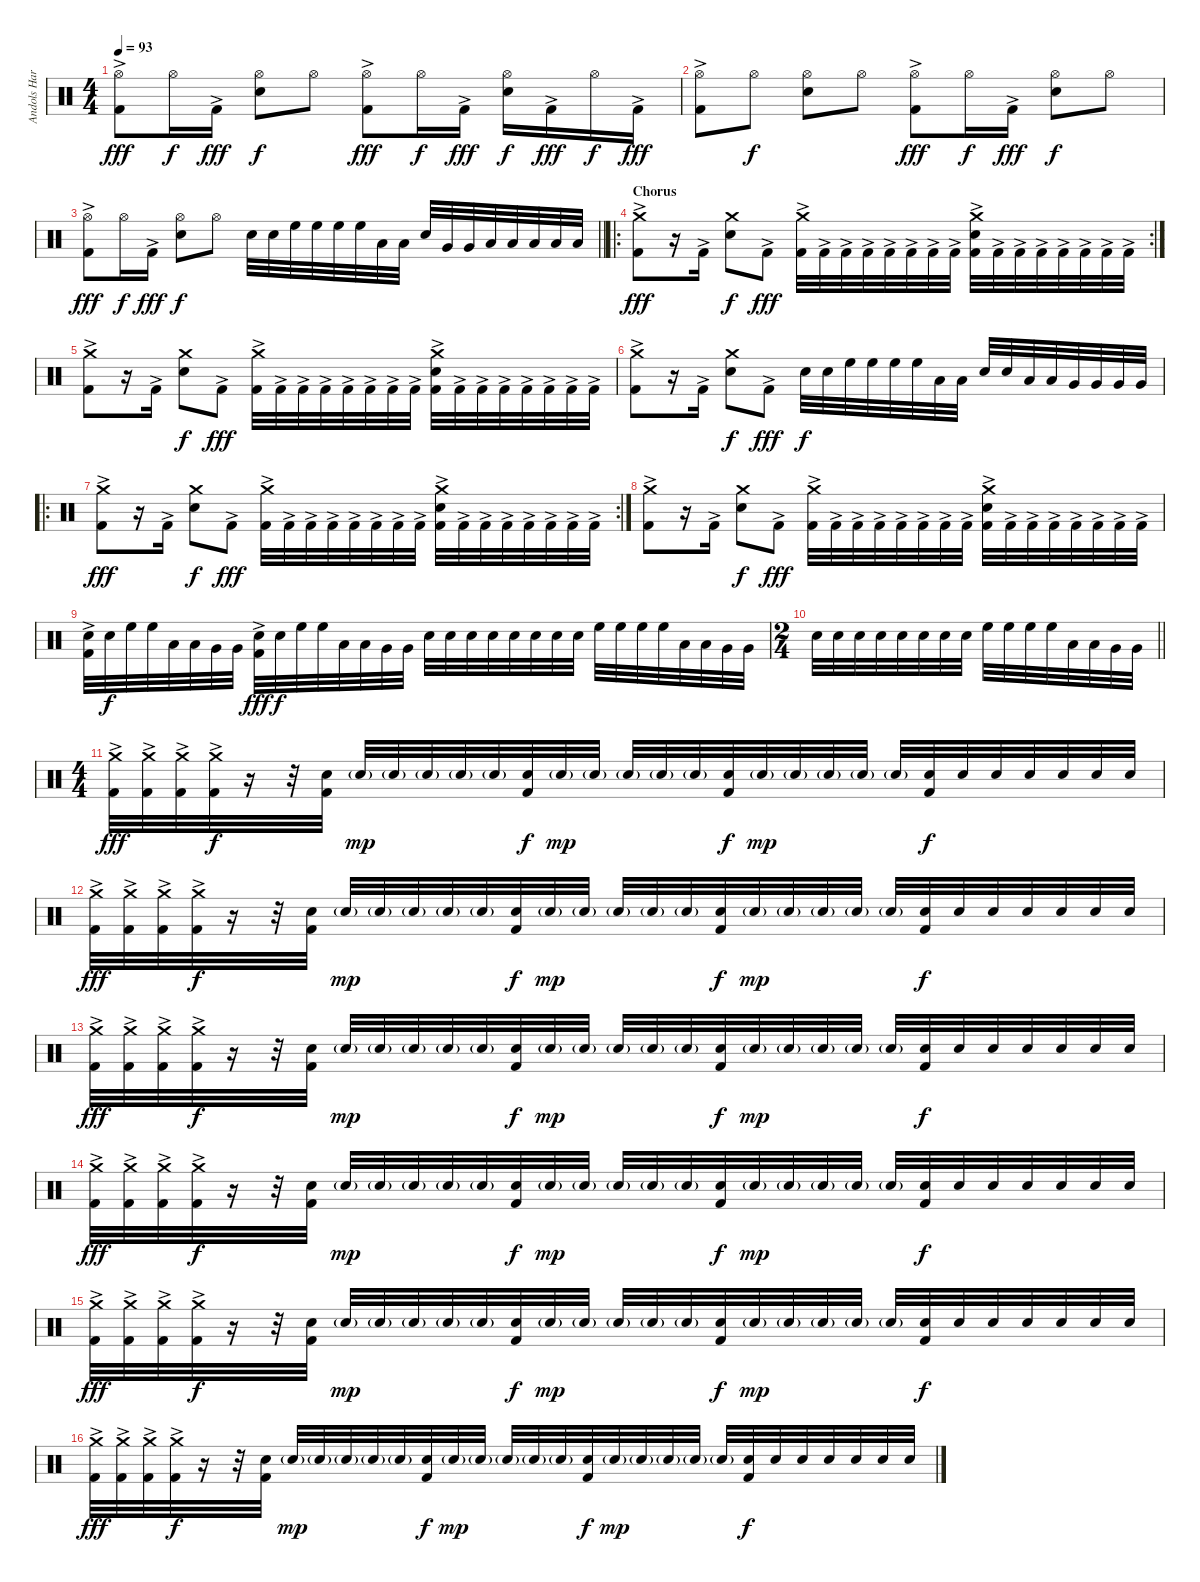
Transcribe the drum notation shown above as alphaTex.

\track ("Andols Harrick" "Andols Har") {instrument percussion}
\staff {score}
\articulation defaults
\ts (4 4)
\tempo 93
\clef neutral
\ks c
("Hi-Hat (open)" "Kick (hit) 2"{ac}).8{dy fff} "Hi-Hat (open)".16{dy f} "Kick (hit) 2"{ac}.16{dy fff} ("Hi-Hat (open)" "Electric Snare (hit)").8{dy f} "Hi-Hat (open)".8 ("Hi-Hat (open)" "Kick (hit) 2"{ac}).8{dy fff} "Hi-Hat (open)".16{dy f} "Kick (hit) 2"{ac}.16{dy fff} ("Hi-Hat (open)" "Electric Snare (hit)").16{dy f} "Kick (hit) 2"{ac}.16{dy fff} "Hi-Hat (open)".16{dy f} "Kick (hit) 2"{ac}.16{dy fff} |
("Hi-Hat (open)" "Kick (hit) 2"{ac}).8 "Hi-Hat (open)".8{dy f} ("Hi-Hat (open)" "Electric Snare (hit)").8 "Hi-Hat (open)".8 ("Hi-Hat (open)" "Kick (hit) 2"{ac}).8{dy fff} "Hi-Hat (open)".16{dy f} "Kick (hit) 2"{ac}.16{dy fff} ("Hi-Hat (open)" "Electric Snare (hit)").8{dy f} "Hi-Hat (open)".8 |
\barLineRight lightlight
("Hi-Hat (open)" "Kick (hit) 2"{ac}).8{dy fff} "Hi-Hat (open)".16{dy f} "Kick (hit) 2"{ac}.16{dy fff} ("Hi-Hat (open)" "Electric Snare (hit)").8{dy f} "Hi-Hat (open)".8 "Electric Snare (hit)".32 "Electric Snare (hit)".32 "High Floor Tom (hit)".32 "High Floor Tom (hit)".32 "High Floor Tom (hit)".32 "High Floor Tom (hit)".32 "Low Tom (hit)".32 "Low Tom (hit)".32 "Electric Snare (hit)".32 "Very Low Tom (hit)".32 "Very Low Tom (hit)".32 "Low Floor Tom (hit)".32 "Low Floor Tom (hit)".32 "Low Floor Tom (hit)".32 "Low Floor Tom (hit)".32 "Low Floor Tom (hit)".32 |
\ro
\rc 2
\section ("" "Chorus")
("Crash medium (hit)" "Kick (hit) 2"{ac}).8{dy fff} r.16 "Kick (hit) 2"{ac}.16 ("Crash medium (hit)" "Electric Snare (hit)").8{dy f} "Kick (hit) 2"{ac}.8{dy fff} ("Crash medium (hit)" "Kick (hit) 2"{ac}).32 "Kick (hit) 2"{ac}.32 "Kick (hit) 2"{ac}.32 "Kick (hit) 2"{ac}.32 "Kick (hit) 2"{ac}.32 "Kick (hit) 2"{ac}.32 "Kick (hit) 2"{ac}.32 "Kick (hit) 2"{ac}.32 ("Crash medium (hit)" "Electric Snare (hit)" "Kick (hit) 2"{ac}).32 "Kick (hit) 2"{ac}.32 "Kick (hit) 2"{ac}.32 "Kick (hit) 2"{ac}.32 "Kick (hit) 2"{ac}.32 "Kick (hit) 2"{ac}.32 "Kick (hit) 2"{ac}.32 "Kick (hit) 2"{ac}.32 |
("Crash medium (hit)" "Kick (hit) 2"{ac}).8 r.16 "Kick (hit) 2"{ac}.16 ("Crash medium (hit)" "Electric Snare (hit)").8{dy f} "Kick (hit) 2"{ac}.8{dy fff} ("Crash medium (hit)" "Kick (hit) 2"{ac}).32 "Kick (hit) 2"{ac}.32 "Kick (hit) 2"{ac}.32 "Kick (hit) 2"{ac}.32 "Kick (hit) 2"{ac}.32 "Kick (hit) 2"{ac}.32 "Kick (hit) 2"{ac}.32 "Kick (hit) 2"{ac}.32 ("Crash medium (hit)" "Electric Snare (hit)" "Kick (hit) 2"{ac}).32 "Kick (hit) 2"{ac}.32 "Kick (hit) 2"{ac}.32 "Kick (hit) 2"{ac}.32 "Kick (hit) 2"{ac}.32 "Kick (hit) 2"{ac}.32 "Kick (hit) 2"{ac}.32 "Kick (hit) 2"{ac}.32 |
("Crash medium (hit)" "Kick (hit) 2"{ac}).8 r.16 "Kick (hit) 2"{ac}.16 ("Crash medium (hit)" "Electric Snare (hit)").8{dy f} "Kick (hit) 2"{ac}.8{dy fff} "Electric Snare (hit)".32{dy f} "Electric Snare (hit)".32 "High Floor Tom (hit)".32 "High Floor Tom (hit)".32 "High Floor Tom (hit)".32 "High Floor Tom (hit)".32 "Low Tom (hit)".32 "Low Tom (hit)".32 "Electric Snare (hit)".32 "Electric Snare (hit)".32 "Low Tom (hit)".32 "Low Tom (hit)".32 "Very Low Tom (hit)".32 "Very Low Tom (hit)".32 "Very Low Tom (hit)".32 "Very Low Tom (hit)".32 |
\ro
\rc 2
("Crash medium (hit)" "Kick (hit) 2"{ac}).8{dy fff} r.16 "Kick (hit) 2"{ac}.16 ("Crash medium (hit)" "Electric Snare (hit)").8{dy f} "Kick (hit) 2"{ac}.8{dy fff} ("Crash medium (hit)" "Kick (hit) 2"{ac}).32 "Kick (hit) 2"{ac}.32 "Kick (hit) 2"{ac}.32 "Kick (hit) 2"{ac}.32 "Kick (hit) 2"{ac}.32 "Kick (hit) 2"{ac}.32 "Kick (hit) 2"{ac}.32 "Kick (hit) 2"{ac}.32 ("Crash medium (hit)" "Electric Snare (hit)" "Kick (hit) 2"{ac}).32 "Kick (hit) 2"{ac}.32 "Kick (hit) 2"{ac}.32 "Kick (hit) 2"{ac}.32 "Kick (hit) 2"{ac}.32 "Kick (hit) 2"{ac}.32 "Kick (hit) 2"{ac}.32 "Kick (hit) 2"{ac}.32 |
("Crash medium (hit)" "Kick (hit) 2"{ac}).8 r.16 "Kick (hit) 2"{ac}.16 ("Crash medium (hit)" "Electric Snare (hit)").8{dy f} "Kick (hit) 2"{ac}.8{dy fff} ("Crash medium (hit)" "Kick (hit) 2"{ac}).32 "Kick (hit) 2"{ac}.32 "Kick (hit) 2"{ac}.32 "Kick (hit) 2"{ac}.32 "Kick (hit) 2"{ac}.32 "Kick (hit) 2"{ac}.32 "Kick (hit) 2"{ac}.32 "Kick (hit) 2"{ac}.32 ("Crash medium (hit)" "Electric Snare (hit)" "Kick (hit) 2"{ac}).32 "Kick (hit) 2"{ac}.32 "Kick (hit) 2"{ac}.32 "Kick (hit) 2"{ac}.32 "Kick (hit) 2"{ac}.32 "Kick (hit) 2"{ac}.32 "Kick (hit) 2"{ac}.32 "Kick (hit) 2"{ac}.32 |
("Electric Snare (hit)" "Kick (hit) 2"{ac}).32 "Electric Snare (hit)".32{dy f} "High Floor Tom (hit)".32 "High Floor Tom (hit)".32 "Low Tom (hit)".32 "Low Tom (hit)".32 "Very Low Tom (hit)".32 "Very Low Tom (hit)".32 ("Electric Snare (hit)" "Kick (hit) 2"{ac}).32{dy fff} "Electric Snare (hit)".32{dy f} "High Floor Tom (hit)".32 "High Floor Tom (hit)".32 "Low Tom (hit)".32 "Low Tom (hit)".32 "Very Low Tom (hit)".32 "Very Low Tom (hit)".32 "Electric Snare (hit)".32 "Electric Snare (hit)".32 "Electric Snare (hit)".32 "Electric Snare (hit)".32 "Electric Snare (hit)".32 "Electric Snare (hit)".32 "Electric Snare (hit)".32 "Electric Snare (hit)".32 "High Floor Tom (hit)".32 "High Floor Tom (hit)".32 "High Floor Tom (hit)".32 "High Floor Tom (hit)".32 "Low Tom (hit)".32 "Low Tom (hit)".32 "Very Low Tom (hit)".32 "Very Low Tom (hit)".32 |
\ts (2 4)
\barLineRight lightlight "Electric Snare (hit)".32 "Electric Snare (hit)".32 "Electric Snare (hit)".32 "Electric Snare (hit)".32 "Electric Snare (hit)".32 "Electric Snare (hit)".32 "Electric Snare (hit)".32 "Electric Snare (hit)".32 "High Floor Tom (hit)".32 "High Floor Tom (hit)".32 "High Floor Tom (hit)".32 "High Floor Tom (hit)".32 "Low Tom (hit)".32 "Low Tom (hit)".32 "Very Low Tom (hit)".32 "Very Low Tom (hit)".32
|
\ts (4 4)
\section ("" "  ")
("Crash medium (hit)" "Kick (hit) 2"{ac}).32{dy fff} ("Crash medium (hit)"{ac} "Kick (hit) 2").32 ("Crash medium (hit)"{ac} "Kick (hit) 2").32 ("Crash medium (hit)"{ac} "Kick (hit) 2").32{dy f} r.16 r.32 ("Electric Snare (hit)" "Kick (hit) 2").32 "Electric Snare (hit)"{g}.32{dy mp} "Electric Snare (hit)"{g}.32 "Electric Snare (hit)"{g}.32 "Electric Snare (hit)"{g}.32 "Electric Snare (hit)"{g}.32 ("Electric Snare (hit)" "Kick (hit) 2").32{dy f} "Electric Snare (hit)"{g}.32{dy mp} "Electric Snare (hit)"{g}.32 "Electric Snare (hit)"{g}.32 "Electric Snare (hit)"{g}.32 "Electric Snare (hit)"{g}.32 ("Electric Snare (hit)" "Kick (hit) 2").32{dy f} "Electric Snare (hit)"{g}.32{dy mp} "Electric Snare (hit)"{g}.32 "Electric Snare (hit)"{g}.32 "Electric Snare (hit)"{g}.32 "Electric Snare (hit)"{g}.32 ("Electric Snare (hit)" "Kick (hit) 2").32{dy f} "Electric Snare (hit)".32 "Electric Snare (hit)".32 "Electric Snare (hit)".32 "Electric Snare (hit)".32 "Electric Snare (hit)".32 "Electric Snare (hit)".32 |
("Crash medium (hit)" "Kick (hit) 2"{ac}).32{dy fff} ("Crash medium (hit)"{ac} "Kick (hit) 2").32 ("Crash medium (hit)"{ac} "Kick (hit) 2").32 ("Crash medium (hit)"{ac} "Kick (hit) 2").32{dy f} r.16 r.32 ("Electric Snare (hit)" "Kick (hit) 2").32 "Electric Snare (hit)"{g}.32{dy mp} "Electric Snare (hit)"{g}.32 "Electric Snare (hit)"{g}.32 "Electric Snare (hit)"{g}.32 "Electric Snare (hit)"{g}.32 ("Electric Snare (hit)" "Kick (hit) 2").32{dy f} "Electric Snare (hit)"{g}.32{dy mp} "Electric Snare (hit)"{g}.32 "Electric Snare (hit)"{g}.32 "Electric Snare (hit)"{g}.32 "Electric Snare (hit)"{g}.32 ("Electric Snare (hit)" "Kick (hit) 2").32{dy f} "Electric Snare (hit)"{g}.32{dy mp} "Electric Snare (hit)"{g}.32 "Electric Snare (hit)"{g}.32 "Electric Snare (hit)"{g}.32 "Electric Snare (hit)"{g}.32 ("Electric Snare (hit)" "Kick (hit) 2").32{dy f} "Electric Snare (hit)".32 "Electric Snare (hit)".32 "Electric Snare (hit)".32 "Electric Snare (hit)".32 "Electric Snare (hit)".32 "Electric Snare (hit)".32 |
("Crash medium (hit)" "Kick (hit) 2"{ac}).32{dy fff} ("Crash medium (hit)"{ac} "Kick (hit) 2").32 ("Crash medium (hit)"{ac} "Kick (hit) 2").32 ("Crash medium (hit)"{ac} "Kick (hit) 2").32{dy f} r.16 r.32 ("Electric Snare (hit)" "Kick (hit) 2").32 "Electric Snare (hit)"{g}.32{dy mp} "Electric Snare (hit)"{g}.32 "Electric Snare (hit)"{g}.32 "Electric Snare (hit)"{g}.32 "Electric Snare (hit)"{g}.32 ("Electric Snare (hit)" "Kick (hit) 2").32{dy f} "Electric Snare (hit)"{g}.32{dy mp} "Electric Snare (hit)"{g}.32 "Electric Snare (hit)"{g}.32 "Electric Snare (hit)"{g}.32 "Electric Snare (hit)"{g}.32 ("Electric Snare (hit)" "Kick (hit) 2").32{dy f} "Electric Snare (hit)"{g}.32{dy mp} "Electric Snare (hit)"{g}.32 "Electric Snare (hit)"{g}.32 "Electric Snare (hit)"{g}.32 "Electric Snare (hit)"{g}.32 ("Electric Snare (hit)" "Kick (hit) 2").32{dy f} "Electric Snare (hit)".32 "Electric Snare (hit)".32 "Electric Snare (hit)".32 "Electric Snare (hit)".32 "Electric Snare (hit)".32 "Electric Snare (hit)".32 |
("Crash medium (hit)" "Kick (hit) 2"{ac}).32{dy fff} ("Crash medium (hit)"{ac} "Kick (hit) 2").32 ("Crash medium (hit)"{ac} "Kick (hit) 2").32 ("Crash medium (hit)"{ac} "Kick (hit) 2").32{dy f} r.16 r.32 ("Electric Snare (hit)" "Kick (hit) 2").32 "Electric Snare (hit)"{g}.32{dy mp} "Electric Snare (hit)"{g}.32 "Electric Snare (hit)"{g}.32 "Electric Snare (hit)"{g}.32 "Electric Snare (hit)"{g}.32 ("Electric Snare (hit)" "Kick (hit) 2").32{dy f} "Electric Snare (hit)"{g}.32{dy mp} "Electric Snare (hit)"{g}.32 "Electric Snare (hit)"{g}.32 "Electric Snare (hit)"{g}.32 "Electric Snare (hit)"{g}.32 ("Electric Snare (hit)" "Kick (hit) 2").32{dy f} "Electric Snare (hit)"{g}.32{dy mp} "Electric Snare (hit)"{g}.32 "Electric Snare (hit)"{g}.32 "Electric Snare (hit)"{g}.32 "Electric Snare (hit)"{g}.32 ("Electric Snare (hit)" "Kick (hit) 2").32{dy f} "Electric Snare (hit)".32 "Electric Snare (hit)".32 "Electric Snare (hit)".32 "Electric Snare (hit)".32 "Electric Snare (hit)".32 "Electric Snare (hit)".32 |
("Crash medium (hit)" "Kick (hit) 2"{ac}).32{dy fff} ("Crash medium (hit)"{ac} "Kick (hit) 2").32 ("Crash medium (hit)"{ac} "Kick (hit) 2").32 ("Crash medium (hit)"{ac} "Kick (hit) 2").32{dy f} r.16 r.32 ("Electric Snare (hit)" "Kick (hit) 2").32 "Electric Snare (hit)"{g}.32{dy mp} "Electric Snare (hit)"{g}.32 "Electric Snare (hit)"{g}.32 "Electric Snare (hit)"{g}.32 "Electric Snare (hit)"{g}.32 ("Electric Snare (hit)" "Kick (hit) 2").32{dy f} "Electric Snare (hit)"{g}.32{dy mp} "Electric Snare (hit)"{g}.32 "Electric Snare (hit)"{g}.32 "Electric Snare (hit)"{g}.32 "Electric Snare (hit)"{g}.32 ("Electric Snare (hit)" "Kick (hit) 2").32{dy f} "Electric Snare (hit)"{g}.32{dy mp} "Electric Snare (hit)"{g}.32 "Electric Snare (hit)"{g}.32 "Electric Snare (hit)"{g}.32 "Electric Snare (hit)"{g}.32 ("Electric Snare (hit)" "Kick (hit) 2").32{dy f} "Electric Snare (hit)".32 "Electric Snare (hit)".32 "Electric Snare (hit)".32 "Electric Snare (hit)".32 "Electric Snare (hit)".32 "Electric Snare (hit)".32 |
("Crash medium (hit)" "Kick (hit) 2"{ac}).32{dy fff} ("Crash medium (hit)"{ac} "Kick (hit) 2").32 ("Crash medium (hit)"{ac} "Kick (hit) 2").32 ("Crash medium (hit)"{ac} "Kick (hit) 2").32{dy f} r.16 r.32 ("Electric Snare (hit)" "Kick (hit) 2").32 "Electric Snare (hit)"{g}.32{dy mp} "Electric Snare (hit)"{g}.32 "Electric Snare (hit)"{g}.32 "Electric Snare (hit)"{g}.32 "Electric Snare (hit)"{g}.32 ("Electric Snare (hit)" "Kick (hit) 2").32{dy f} "Electric Snare (hit)"{g}.32{dy mp} "Electric Snare (hit)"{g}.32 "Electric Snare (hit)"{g}.32 "Electric Snare (hit)"{g}.32 "Electric Snare (hit)"{g}.32 ("Electric Snare (hit)" "Kick (hit) 2").32{dy f} "Electric Snare (hit)"{g}.32{dy mp} "Electric Snare (hit)"{g}.32 "Electric Snare (hit)"{g}.32 "Electric Snare (hit)"{g}.32 "Electric Snare (hit)"{g}.32 ("Electric Snare (hit)" "Kick (hit) 2").32{dy f} "Electric Snare (hit)".32 "Electric Snare (hit)".32 "Electric Snare (hit)".32 "Electric Snare (hit)".32 "Electric Snare (hit)".32 "Electric Snare (hit)".32
